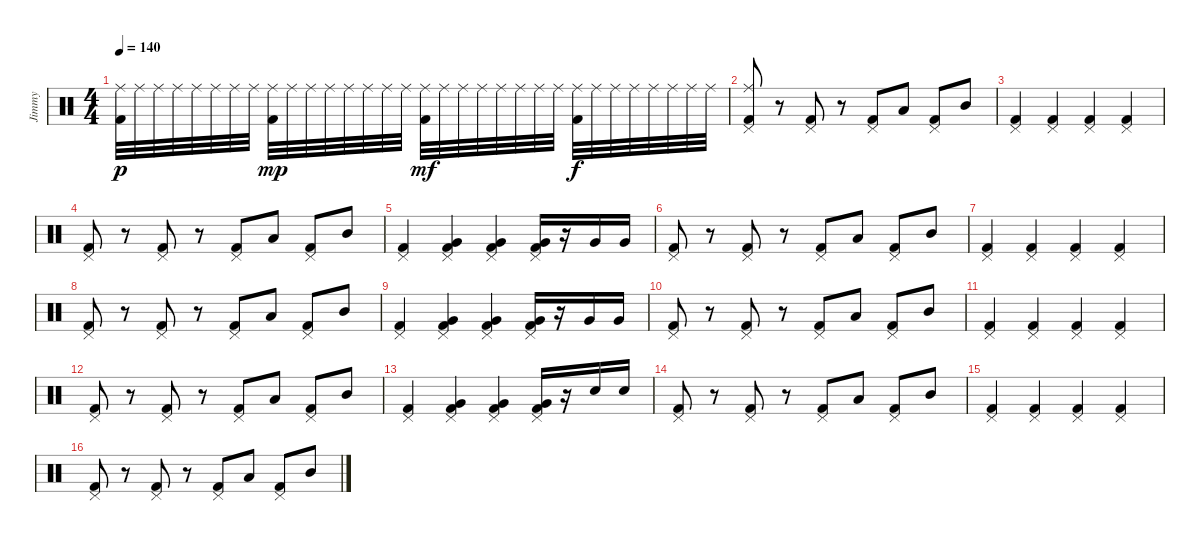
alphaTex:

\track ("Jimmy" "Jimmy") {instrument percussion}
\staff {score}
\articulation defaults
\ts (4 4)
\tempo 140
\clef neutral
\ks c
("Ride (middle)" "Kick (hit) 2").32{dy p} "Ride (middle)".32 "Ride (middle)".32 "Ride (middle)".32 "Ride (middle)".32 "Ride (middle)".32 "Ride (middle)".32 "Ride (middle)".32 ("Ride (middle)" "Kick (hit) 2").32{dy mp} "Ride (middle)".32 "Ride (middle)".32 "Ride (middle)".32 "Ride (middle)".32 "Ride (middle)".32 "Ride (middle)".32 "Ride (middle)".32 ("Ride (middle)" "Kick (hit) 2").32{dy mf} "Ride (middle)".32 "Ride (middle)".32 "Ride (middle)".32 "Ride (middle)".32 "Ride (middle)".32 "Ride (middle)".32 "Ride (middle)".32 ("Ride (middle)" "Kick (hit) 2").32{dy f} "Ride (middle)".32 "Ride (middle)".32 "Ride (middle)".32 "Ride (middle)".32 "Ride (middle)".32 "Ride (middle)".32 "Ride (middle)".32 |
("Kick (hit) 2" "Pedal Hi-Hat (hit)" "Ride (middle)").8 r.8 ("Kick (hit) 2" "Pedal Hi-Hat (hit)").8 r.8 ("Kick (hit) 2" "Pedal Hi-Hat (hit)").8 "Low Tom (hit)".8 ("Kick (hit) 2" "Pedal Hi-Hat (hit)").8 "Mid Tom (hit)".8 |
("Kick (hit) 2" "Pedal Hi-Hat (hit)").4 ("Kick (hit) 2" "Pedal Hi-Hat (hit)").4 ("Kick (hit) 2" "Pedal Hi-Hat (hit)").4 ("Kick (hit) 2" "Pedal Hi-Hat (hit)").4 |
("Kick (hit) 2" "Pedal Hi-Hat (hit)").8 r.8 ("Kick (hit) 2" "Pedal Hi-Hat (hit)").8 r.8 ("Kick (hit) 2" "Pedal Hi-Hat (hit)").8 "Low Tom (hit)".8 ("Kick (hit) 2" "Pedal Hi-Hat (hit)").8 "Mid Tom (hit)".8 |
("Kick (hit) 2" "Pedal Hi-Hat (hit)").4 ("Kick (hit) 2" "Pedal Hi-Hat (hit)" "Very Low Tom (hit)").4 ("Kick (hit) 2" "Pedal Hi-Hat (hit)" "Very Low Tom (hit)").4 ("Kick (hit) 2" "Pedal Hi-Hat (hit)" "Very Low Tom (hit)").16 r.16 "Very Low Tom (hit)".16 "Very Low Tom (hit)".16 |
("Kick (hit) 2" "Pedal Hi-Hat (hit)").8 r.8 ("Kick (hit) 2" "Pedal Hi-Hat (hit)").8 r.8 ("Kick (hit) 2" "Pedal Hi-Hat (hit)").8 "Low Tom (hit)".8 ("Kick (hit) 2" "Pedal Hi-Hat (hit)").8 "Mid Tom (hit)".8 |
("Kick (hit) 2" "Pedal Hi-Hat (hit)").4 ("Kick (hit) 2" "Pedal Hi-Hat (hit)").4 ("Kick (hit) 2" "Pedal Hi-Hat (hit)").4 ("Kick (hit) 2" "Pedal Hi-Hat (hit)").4 |
("Kick (hit) 2" "Pedal Hi-Hat (hit)").8 r.8 ("Kick (hit) 2" "Pedal Hi-Hat (hit)").8 r.8 ("Kick (hit) 2" "Pedal Hi-Hat (hit)").8 "Low Tom (hit)".8 ("Kick (hit) 2" "Pedal Hi-Hat (hit)").8 "Mid Tom (hit)".8 |
("Kick (hit) 2" "Pedal Hi-Hat (hit)").4 ("Kick (hit) 2" "Pedal Hi-Hat (hit)" "Very Low Tom (hit)").4 ("Kick (hit) 2" "Pedal Hi-Hat (hit)" "Very Low Tom (hit)").4 ("Kick (hit) 2" "Pedal Hi-Hat (hit)" "Very Low Tom (hit)").16 r.16 "Very Low Tom (hit)".16 "Very Low Tom (hit)".16 |
("Kick (hit) 2" "Pedal Hi-Hat (hit)").8 r.8 ("Kick (hit) 2" "Pedal Hi-Hat (hit)").8 r.8 ("Kick (hit) 2" "Pedal Hi-Hat (hit)").8 "Low Tom (hit)".8 ("Kick (hit) 2" "Pedal Hi-Hat (hit)").8 "Mid Tom (hit)".8 |
("Kick (hit) 2" "Pedal Hi-Hat (hit)").4 ("Kick (hit) 2" "Pedal Hi-Hat (hit)").4 ("Kick (hit) 2" "Pedal Hi-Hat (hit)").4 ("Kick (hit) 2" "Pedal Hi-Hat (hit)").4 |
("Kick (hit) 2" "Pedal Hi-Hat (hit)").8 r.8 ("Kick (hit) 2" "Pedal Hi-Hat (hit)").8 r.8 ("Kick (hit) 2" "Pedal Hi-Hat (hit)").8 "Low Tom (hit)".8 ("Kick (hit) 2" "Pedal Hi-Hat (hit)").8 "Mid Tom (hit)".8 |
("Kick (hit) 2" "Pedal Hi-Hat (hit)").4 ("Kick (hit) 2" "Pedal Hi-Hat (hit)" "Very Low Tom (hit)").4 ("Kick (hit) 2" "Pedal Hi-Hat (hit)" "Very Low Tom (hit)").4 ("Kick (hit) 2" "Pedal Hi-Hat (hit)" "Very Low Tom (hit)").16 r.16 "Snare (hit) 2".16 "Snare (hit) 2".16 |
("Kick (hit) 2" "Pedal Hi-Hat (hit)").8 r.8 ("Kick (hit) 2" "Pedal Hi-Hat (hit)").8 r.8 ("Kick (hit) 2" "Pedal Hi-Hat (hit)").8 "Low Tom (hit)".8 ("Kick (hit) 2" "Pedal Hi-Hat (hit)").8 "Mid Tom (hit)".8 |
("Kick (hit) 2" "Pedal Hi-Hat (hit)").4 ("Kick (hit) 2" "Pedal Hi-Hat (hit)").4 ("Kick (hit) 2" "Pedal Hi-Hat (hit)").4 ("Kick (hit) 2" "Pedal Hi-Hat (hit)").4 |
("Kick (hit) 2" "Pedal Hi-Hat (hit)").8 r.8 ("Kick (hit) 2" "Pedal Hi-Hat (hit)").8 r.8 ("Kick (hit) 2" "Pedal Hi-Hat (hit)").8 "Low Tom (hit)".8 ("Kick (hit) 2" "Pedal Hi-Hat (hit)").8 "Mid Tom (hit)".8
